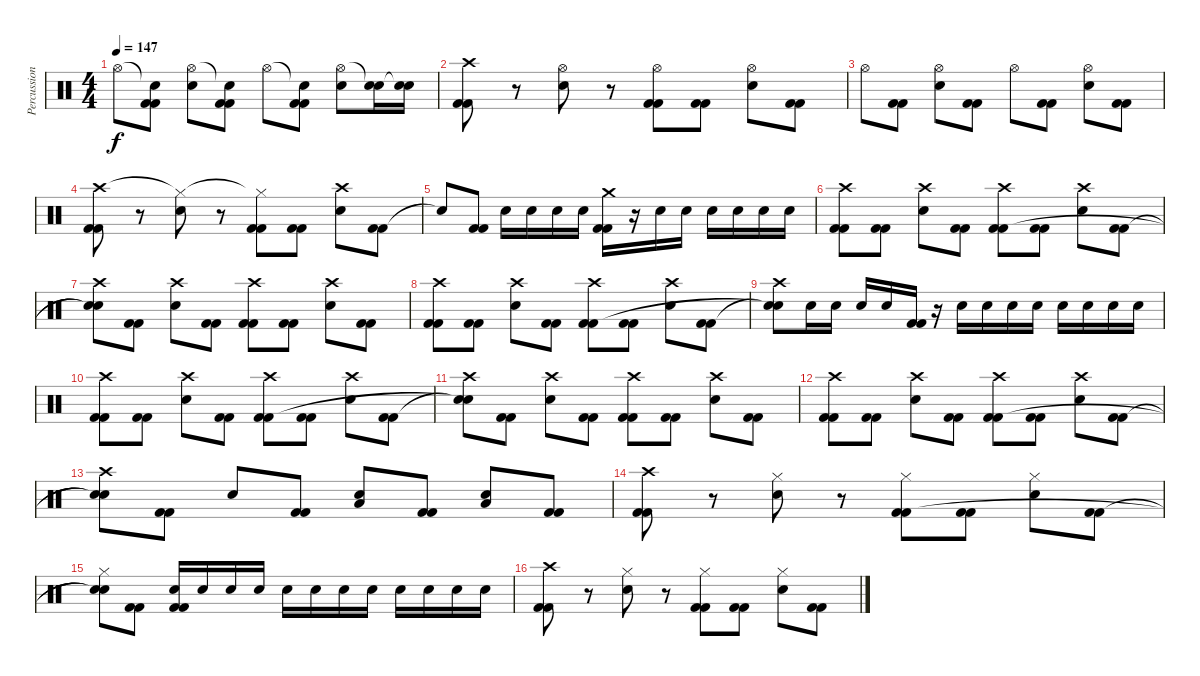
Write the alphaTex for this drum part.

\track ("Percussions" "Percussion") {instrument percussion}
\staff {score}
\articulation defaults
\ts (4 4)
\tempo 147
\clef neutral
\ks c "Hi-Hat (open)".8{dy f}
("Snare (hit)"{t} "Kick (hit) 2" "Kick (hit) 2").8 ("Hi-Hat (open)" "Snare (hit) 2").8 ("Snare (hit)"{t} "Kick (hit) 2" "Kick (hit) 2").8 "Hi-Hat (open)".8 ("Snare (hit)"{t} "Kick (hit) 2" "Kick (hit) 2").8 ("Hi-Hat (open)" "Snare (hit) 2").8 ("Snare (hit)"{t} "Snare (hit) 2").16 ("Snare (hit)"{t} "Snare (hit) 2").16 |
("Crash high (hit)" "Kick (hit) 2" "Kick (hit) 2").8 r.8 ("Hi-Hat (open)" "Snare (hit) 2").8 r.8 ("Hi-Hat (open)" "Kick (hit) 2" "Kick (hit) 2").8 ("Kick (hit) 2" "Kick (hit) 2").8 ("Hi-Hat (open)" "Snare (hit) 2").8 ("Kick (hit) 2" "Kick (hit) 2").8 |
"Hi-Hat (open)".8 ("Kick (hit) 2" "Kick (hit) 2").8 ("Hi-Hat (open)" "Snare (hit) 2").8 ("Kick (hit) 2" "Kick (hit) 2").8 "Hi-Hat (open)".8 ("Kick (hit) 2" "Kick (hit) 2").8 ("Hi-Hat (open)" "Snare (hit) 2").8 ("Kick (hit) 2" "Kick (hit) 2").8 |
("Crash high (hit)" "Kick (hit) 2" "Kick (hit) 2").8 r.8 ("Hi-Hat (closed)"{t} "Snare (hit) 2").8 r.8 ("Hi-Hat (closed)"{t} "Kick (hit) 2" "Kick (hit) 2").8 ("Kick (hit) 2" "Kick (hit) 2").8 ("Crash high (hit)" "Snare (hit) 2").8 ("Kick (hit) 2" "Kick (hit) 2").8 |
"Snare (hit)"{t}.8 ("Kick (hit) 2" "Kick (hit) 2").8 "Snare (hit) 2".16 "Snare (hit) 2".16 "Snare (hit) 2".16 "Snare (hit) 2".16 ("Crash medium (hit)" "Kick (hit) 2" "Kick (hit) 2").16 r.16 "Snare (hit) 2".16 "Snare (hit) 2".16 "Snare (hit) 2".16 "Snare (hit) 2".16 "Snare (hit) 2".16 "Snare (hit) 2".16 |
("Crash high (hit)" "Kick (hit) 2" "Kick (hit) 2").8 ("Kick (hit) 2" "Kick (hit) 2").8 ("Crash high (hit)" "Snare (hit) 2").8 ("Kick (hit) 2" "Kick (hit) 2").8 ("Crash high (hit)" "Kick (hit) 2" "Kick (hit) 2").8 ("Kick (hit) 2" "Kick (hit) 2").8 ("Crash high (hit)" "Snare (hit) 2").8 ("Kick (hit) 2" "Kick (hit) 2").8 |
("Crash high (hit)" "Snare (hit)"{t} "Snare (hit)"{t}).8 ("Kick (hit) 2" "Kick (hit) 2").8 ("Crash high (hit)" "Snare (hit) 2").8 ("Kick (hit) 2" "Kick (hit) 2").8 ("Crash high (hit)" "Kick (hit) 2" "Kick (hit) 2").8 ("Kick (hit) 2" "Kick (hit) 2").8 ("Crash high (hit)" "Snare (hit) 2").8 ("Kick (hit) 2" "Kick (hit) 2").8 |
("Crash high (hit)" "Kick (hit) 2" "Kick (hit) 2").8 ("Kick (hit) 2" "Kick (hit) 2").8 ("Crash high (hit)" "Snare (hit) 2").8 ("Kick (hit) 2" "Kick (hit) 2").8 ("Crash high (hit)" "Kick (hit) 2" "Kick (hit) 2").8 ("Kick (hit) 2" "Kick (hit) 2").8 ("Crash high (hit)" "Snare (hit) 2").8 ("Kick (hit) 2" "Kick (hit) 2").8 |
("Crash high (hit)" "Snare (hit)"{t} "Snare (hit)"{t}).8 "Snare (hit) 2".16 "Snare (hit) 2".16 "Snare (hit) 2".16 "Snare (hit) 2".16 ("Kick (hit) 2" "Kick (hit) 2").16 r.16 "Snare (hit) 2".16 "Snare (hit) 2".16 "Snare (hit) 2".16 "Snare (hit) 2".16 "Snare (hit) 2".16 "Snare (hit) 2".16 "Snare (hit) 2".16 "Snare (hit) 2".16 |
("Crash high (hit)" "Kick (hit) 2" "Kick (hit) 2").8 ("Kick (hit) 2" "Kick (hit) 2").8 ("Crash high (hit)" "Snare (hit) 2").8 ("Kick (hit) 2" "Kick (hit) 2").8 ("Crash high (hit)" "Kick (hit) 2" "Kick (hit) 2").8 ("Kick (hit) 2" "Kick (hit) 2").8 ("Crash high (hit)" "Snare (hit) 2").8 ("Kick (hit) 2" "Kick (hit) 2").8 |
("Crash high (hit)" "Snare (hit)"{t} "Snare (hit)"{t}).8 ("Kick (hit) 2" "Kick (hit) 2").8 ("Crash high (hit)" "Snare (hit) 2").8 ("Kick (hit) 2" "Kick (hit) 2").8 ("Crash high (hit)" "Kick (hit) 2" "Kick (hit) 2").8 ("Kick (hit) 2" "Kick (hit) 2").8 ("Crash high (hit)" "Snare (hit) 2").8 ("Kick (hit) 2" "Kick (hit) 2").8 |
("Crash high (hit)" "Kick (hit) 2" "Kick (hit) 2").8 ("Kick (hit) 2" "Kick (hit) 2").8 ("Crash high (hit)" "Snare (hit) 2").8 ("Kick (hit) 2" "Kick (hit) 2").8 ("Crash high (hit)" "Kick (hit) 2" "Kick (hit) 2").8 ("Kick (hit) 2" "Kick (hit) 2").8 ("Crash high (hit)" "Snare (hit) 2").8 ("Kick (hit) 2" "Kick (hit) 2").8 |
("Crash high (hit)" "Snare (hit)"{t} "Snare (hit)"{t}).8 ("Kick (hit) 2" "Kick (hit) 2").8 "Snare (hit) 2".8 ("Kick (hit) 2" "Kick (hit) 2").8 ("Low Tom (hit)" "Snare (hit) 2").8 ("Kick (hit) 2" "Kick (hit) 2").8 ("Low Tom (hit)" "Snare (hit) 2").8 ("Kick (hit) 2" "Kick (hit) 2").8 |
("Crash high (hit)" "Kick (hit) 2" "Kick (hit) 2").8 r.8 ("Hi-Hat (closed)" "Snare (hit) 2").8 r.8 ("Hi-Hat (closed)" "Kick (hit) 2" "Kick (hit) 2").8 ("Kick (hit) 2" "Kick (hit) 2").8 ("Hi-Hat (closed)" "Snare (hit) 2").8 ("Kick (hit) 2" "Kick (hit) 2").8 |
("Hi-Hat (closed)" "Snare (hit)"{t} "Snare (hit)"{t}).8 ("Kick (hit) 2" "Kick (hit) 2").8 ("Snare (hit) 2" "Kick (hit) 2" "Kick (hit) 2").16 "Snare (hit) 2".16 "Snare (hit) 2".16 "Snare (hit) 2".16 "Snare (hit) 2".16 "Snare (hit) 2".16 "Snare (hit) 2".16 "Snare (hit) 2".16 "Snare (hit) 2".16 "Snare (hit) 2".16 "Snare (hit) 2".16 "Snare (hit) 2".16 |
("Crash high (hit)" "Kick (hit) 2" "Kick (hit) 2").8 r.8 ("Hi-Hat (closed)" "Snare (hit) 2").8 r.8 ("Hi-Hat (closed)" "Kick (hit) 2" "Kick (hit) 2").8 ("Kick (hit) 2" "Kick (hit) 2").8 ("Hi-Hat (closed)" "Snare (hit) 2").8 ("Kick (hit) 2" "Kick (hit) 2").8
